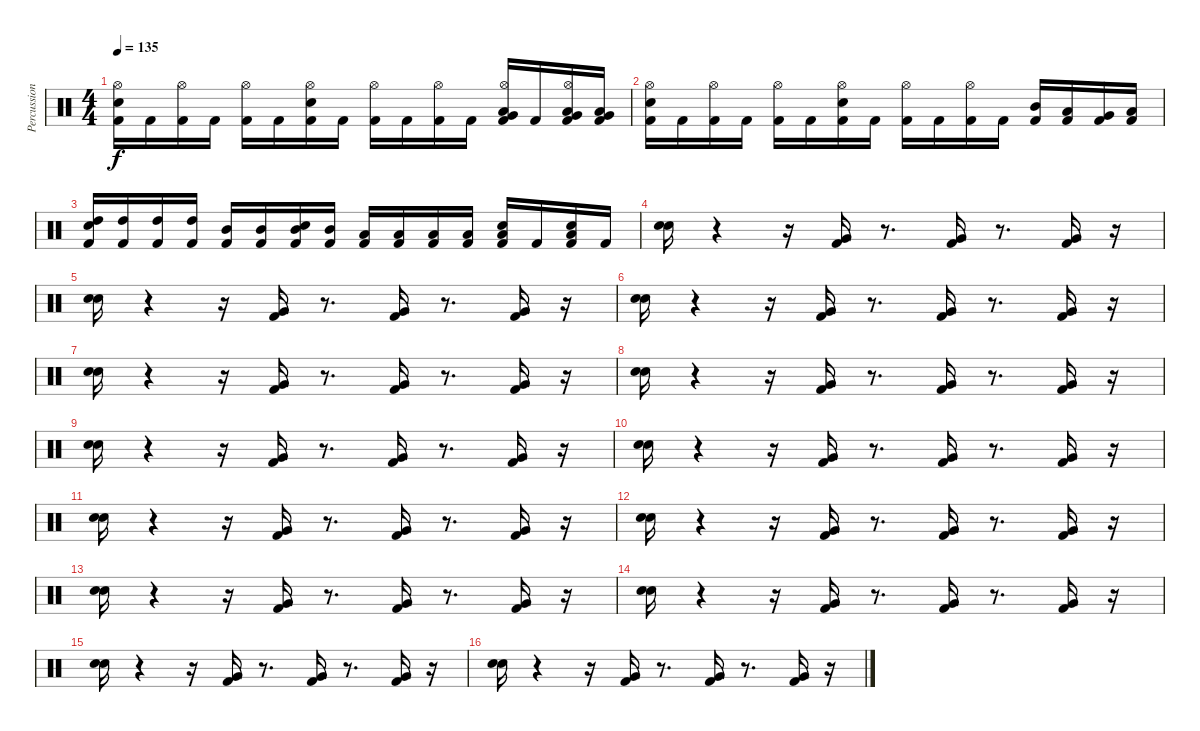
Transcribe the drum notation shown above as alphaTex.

\track ("Percussion" "Percussion") {instrument percussion}
\staff {score}
\articulation defaults
\ts (4 4)
\tempo 135
\clef neutral
\ks c
("Kick (hit) 2" "Electric Snare (hit)" "Hi-Hat (open)").16{dy f} "Kick (hit) 2".16 ("Kick (hit) 2" "Hi-Hat (open)").16 "Kick (hit) 2".16 ("Kick (hit) 2" "Hi-Hat (open)").16 "Kick (hit) 2".16 ("Kick (hit) 2" "Electric Snare (hit)" "Hi-Hat (open)").16 "Kick (hit) 2".16 ("Kick (hit) 2" "Hi-Hat (open)").16 "Kick (hit) 2".16 ("Kick (hit) 2" "Hi-Hat (open)").16 "Kick (hit) 2".16 ("Kick (hit) 2" "Low Floor Tom (hit)" "Very Low Tom (hit)" "Hi-Hat (open)").16 "Kick (hit) 2".16 ("Kick (hit) 2" "Low Floor Tom (hit)" "Very Low Tom (hit)" "Hi-Hat (open)").16 ("Kick (hit) 2" "Low Floor Tom (hit)" "Very Low Tom (hit)").16 |
("Kick (hit) 2" "Electric Snare (hit)" "Hi-Hat (open)").16 "Kick (hit) 2".16 ("Kick (hit) 2" "Hi-Hat (open)").16 "Kick (hit) 2".16 ("Kick (hit) 2" "Hi-Hat (open)").16 "Kick (hit) 2".16 ("Kick (hit) 2" "Electric Snare (hit)" "Hi-Hat (open)").16 "Kick (hit) 2".16 ("Kick (hit) 2" "Hi-Hat (open)").16 "Kick (hit) 2".16 ("Kick (hit) 2" "Hi-Hat (open)").16 "Kick (hit) 2".16 ("Kick (hit) 2" "Mid Tom (hit)").16 ("Kick (hit) 2" "Low Tom (hit)").16 ("Kick (hit) 2" "Very Low Tom (hit)").16 ("Kick (hit) 2" "Low Floor Tom (hit)").16 |
("Kick (hit) 2" "Electric Snare (hit)" "High Tom (hit)").16 ("Kick (hit) 2" "High Tom (hit)").16 ("Kick (hit) 2" "High Tom (hit)").16 ("Kick (hit) 2" "High Tom (hit)").16 ("Kick (hit) 2" "Mid Tom (hit)").16 ("Kick (hit) 2" "Mid Tom (hit)").16 ("Kick (hit) 2" "Electric Snare (hit)" "Mid Tom (hit)").16 ("Kick (hit) 2" "Mid Tom (hit)").16 ("Kick (hit) 2" "Low Tom (hit)").16 ("Kick (hit) 2" "Low Tom (hit)").16 ("Kick (hit) 2" "Low Tom (hit)").16 ("Kick (hit) 2" "Low Tom (hit)").16 ("Kick (hit) 2" "Electric Snare (hit)" "Low Tom (hit)").16 "Kick (hit) 2".16 ("Kick (hit) 2" "Electric Snare (hit)" "Low Tom (hit)").16 "Kick (hit) 2".16 |
("Snare (hit) 2" "Electric Snare (hit)").16 r.4 r.16 ("Kick (hit) 2" "Very Low Tom (hit)").16 r.8{d} ("Kick (hit) 2" "Very Low Tom (hit)").16 r.8{d} ("Kick (hit) 2" "Very Low Tom (hit)").16 r.16 |
("Snare (hit) 2" "Electric Snare (hit)").16 r.4 r.16 ("Kick (hit) 2" "Very Low Tom (hit)").16 r.8{d} ("Kick (hit) 2" "Very Low Tom (hit)").16 r.8{d} ("Kick (hit) 2" "Very Low Tom (hit)").16 r.16 |
("Snare (hit) 2" "Electric Snare (hit)").16 r.4 r.16 ("Kick (hit) 2" "Very Low Tom (hit)").16 r.8{d} ("Kick (hit) 2" "Very Low Tom (hit)").16 r.8{d} ("Kick (hit) 2" "Very Low Tom (hit)").16 r.16 |
("Snare (hit) 2" "Electric Snare (hit)").16 r.4 r.16 ("Kick (hit) 2" "Very Low Tom (hit)").16 r.8{d} ("Kick (hit) 2" "Very Low Tom (hit)").16 r.8{d} ("Kick (hit) 2" "Very Low Tom (hit)").16 r.16 |
("Snare (hit) 2" "Electric Snare (hit)").16 r.4 r.16 ("Kick (hit) 2" "Very Low Tom (hit)").16 r.8{d} ("Kick (hit) 2" "Very Low Tom (hit)").16 r.8{d} ("Kick (hit) 2" "Very Low Tom (hit)").16 r.16 |
("Snare (hit) 2" "Electric Snare (hit)").16 r.4 r.16 ("Kick (hit) 2" "Very Low Tom (hit)").16 r.8{d} ("Kick (hit) 2" "Very Low Tom (hit)").16 r.8{d} ("Kick (hit) 2" "Very Low Tom (hit)").16 r.16 |
("Snare (hit) 2" "Electric Snare (hit)").16 r.4 r.16 ("Kick (hit) 2" "Very Low Tom (hit)").16 r.8{d} ("Kick (hit) 2" "Very Low Tom (hit)").16 r.8{d} ("Kick (hit) 2" "Very Low Tom (hit)").16 r.16 |
("Snare (hit) 2" "Electric Snare (hit)").16 r.4 r.16 ("Kick (hit) 2" "Very Low Tom (hit)").16 r.8{d} ("Kick (hit) 2" "Very Low Tom (hit)").16 r.8{d} ("Kick (hit) 2" "Very Low Tom (hit)").16 r.16 |
("Snare (hit) 2" "Electric Snare (hit)").16 r.4 r.16 ("Kick (hit) 2" "Very Low Tom (hit)").16 r.8{d} ("Kick (hit) 2" "Very Low Tom (hit)").16 r.8{d} ("Kick (hit) 2" "Very Low Tom (hit)").16 r.16 |
("Snare (hit) 2" "Electric Snare (hit)").16 r.4 r.16 ("Kick (hit) 2" "Very Low Tom (hit)").16 r.8{d} ("Kick (hit) 2" "Very Low Tom (hit)").16 r.8{d} ("Kick (hit) 2" "Very Low Tom (hit)").16 r.16 |
("Snare (hit) 2" "Electric Snare (hit)").16 r.4 r.16 ("Kick (hit) 2" "Very Low Tom (hit)").16 r.8{d} ("Kick (hit) 2" "Very Low Tom (hit)").16 r.8{d} ("Kick (hit) 2" "Very Low Tom (hit)").16 r.16 |
("Snare (hit) 2" "Electric Snare (hit)").16 r.4 r.16 ("Kick (hit) 2" "Very Low Tom (hit)").16 r.8{d} ("Kick (hit) 2" "Very Low Tom (hit)").16 r.8{d} ("Kick (hit) 2" "Very Low Tom (hit)").16 r.16 |
("Snare (hit) 2" "Electric Snare (hit)").16 r.4 r.16 ("Kick (hit) 2" "Very Low Tom (hit)").16 r.8{d} ("Kick (hit) 2" "Very Low Tom (hit)").16 r.8{d} ("Kick (hit) 2" "Very Low Tom (hit)").16 r.16
